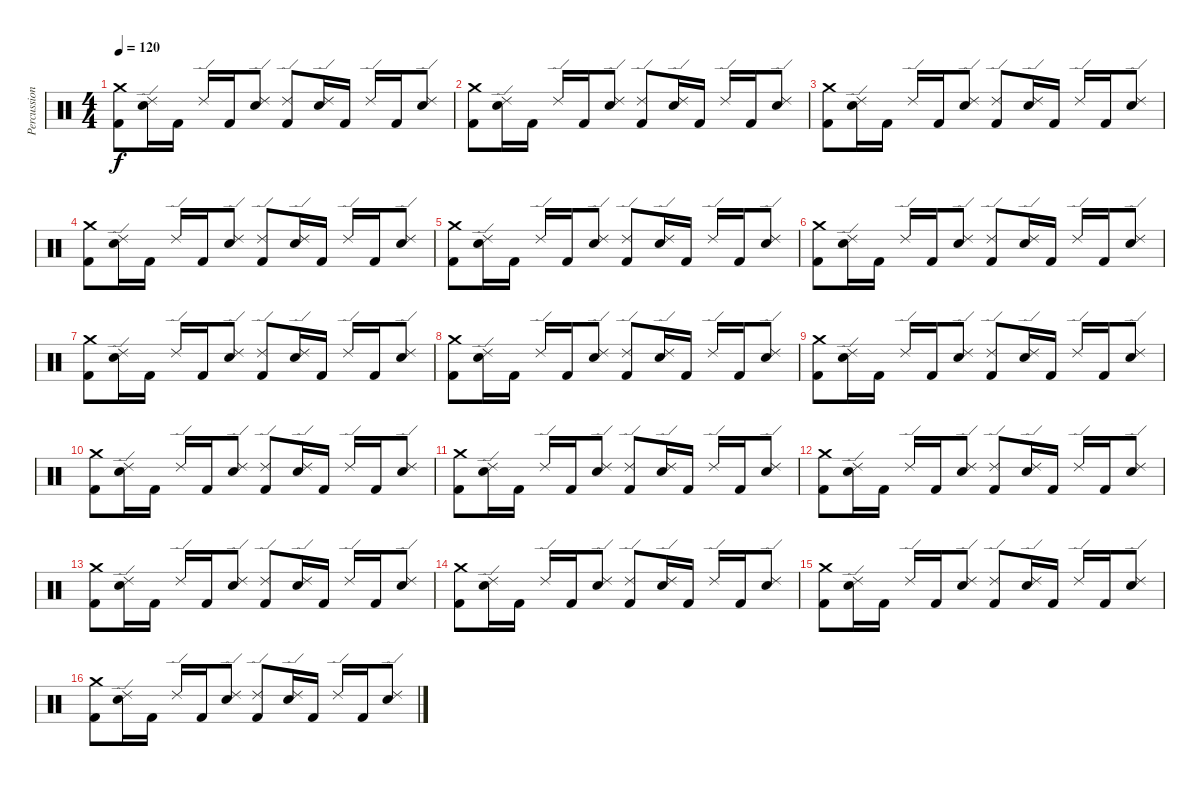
\track ("Percussions" "Percussion") {instrument percussion}
\staff {score}
\articulation defaults
\ts (4 4)
\tempo 120
\clef neutral
\ks c
("Crash medium (hit)" "Kick (hit) 2").8{dy f} ("Ride (edge) 2" "Snare (hit) 2").16 "Kick (hit) 2".16 "Ride (edge) 2".16 "Kick (hit) 2".16 ("Ride (edge) 2" "Snare (hit) 2").8 ("Ride (edge) 2" "Kick (hit) 2").8 ("Ride (edge) 2" "Snare (hit) 2").16 "Kick (hit) 2".16 "Ride (edge) 2".16 "Kick (hit) 2".16 ("Ride (edge) 2" "Snare (hit) 2").8 |
("Crash medium (hit)" "Kick (hit) 2").8 ("Ride (edge) 2" "Snare (hit) 2").16 "Kick (hit) 2".16 "Ride (edge) 2".16 "Kick (hit) 2".16 ("Ride (edge) 2" "Snare (hit) 2").8 ("Ride (edge) 2" "Kick (hit) 2").8 ("Ride (edge) 2" "Snare (hit) 2").16 "Kick (hit) 2".16 "Ride (edge) 2".16 "Kick (hit) 2".16 ("Ride (edge) 2" "Snare (hit) 2").8 |
("Crash medium (hit)" "Kick (hit) 2").8 ("Ride (edge) 2" "Snare (hit) 2").16 "Kick (hit) 2".16 "Ride (edge) 2".16 "Kick (hit) 2".16 ("Ride (edge) 2" "Snare (hit) 2").8 ("Ride (edge) 2" "Kick (hit) 2").8 ("Ride (edge) 2" "Snare (hit) 2").16 "Kick (hit) 2".16 "Ride (edge) 2".16 "Kick (hit) 2".16 ("Ride (edge) 2" "Snare (hit) 2").8 |
("Crash medium (hit)" "Kick (hit) 2").8 ("Ride (edge) 2" "Snare (hit) 2").16 "Kick (hit) 2".16 "Ride (edge) 2".16 "Kick (hit) 2".16 ("Ride (edge) 2" "Snare (hit) 2").8 ("Ride (edge) 2" "Kick (hit) 2").8 ("Ride (edge) 2" "Snare (hit) 2").16 "Kick (hit) 2".16 "Ride (edge) 2".16 "Kick (hit) 2".16 ("Ride (edge) 2" "Snare (hit) 2").8 |
("Crash medium (hit)" "Kick (hit) 2").8 ("Ride (edge) 2" "Snare (hit) 2").16 "Kick (hit) 2".16 "Ride (edge) 2".16 "Kick (hit) 2".16 ("Ride (edge) 2" "Snare (hit) 2").8 ("Ride (edge) 2" "Kick (hit) 2").8 ("Ride (edge) 2" "Snare (hit) 2").16 "Kick (hit) 2".16 "Ride (edge) 2".16 "Kick (hit) 2".16 ("Ride (edge) 2" "Snare (hit) 2").8 |
("Crash medium (hit)" "Kick (hit) 2").8 ("Ride (edge) 2" "Snare (hit) 2").16 "Kick (hit) 2".16 "Ride (edge) 2".16 "Kick (hit) 2".16 ("Ride (edge) 2" "Snare (hit) 2").8 ("Ride (edge) 2" "Kick (hit) 2").8 ("Ride (edge) 2" "Snare (hit) 2").16 "Kick (hit) 2".16 "Ride (edge) 2".16 "Kick (hit) 2".16 ("Ride (edge) 2" "Snare (hit) 2").8 |
("Crash medium (hit)" "Kick (hit) 2").8 ("Ride (edge) 2" "Snare (hit) 2").16 "Kick (hit) 2".16 "Ride (edge) 2".16 "Kick (hit) 2".16 ("Ride (edge) 2" "Snare (hit) 2").8 ("Ride (edge) 2" "Kick (hit) 2").8 ("Ride (edge) 2" "Snare (hit) 2").16 "Kick (hit) 2".16 "Ride (edge) 2".16 "Kick (hit) 2".16 ("Ride (edge) 2" "Snare (hit) 2").8 |
("Crash medium (hit)" "Kick (hit) 2").8 ("Ride (edge) 2" "Snare (hit) 2").16 "Kick (hit) 2".16 "Ride (edge) 2".16 "Kick (hit) 2".16 ("Ride (edge) 2" "Snare (hit) 2").8 ("Ride (edge) 2" "Kick (hit) 2").8 ("Ride (edge) 2" "Snare (hit) 2").16 "Kick (hit) 2".16 "Ride (edge) 2".16 "Kick (hit) 2".16 ("Ride (edge) 2" "Snare (hit) 2").8 |
("Crash medium (hit)" "Kick (hit) 2").8 ("Ride (edge) 2" "Snare (hit) 2").16 "Kick (hit) 2".16 "Ride (edge) 2".16 "Kick (hit) 2".16 ("Ride (edge) 2" "Snare (hit) 2").8 ("Ride (edge) 2" "Kick (hit) 2").8 ("Ride (edge) 2" "Snare (hit) 2").16 "Kick (hit) 2".16 "Ride (edge) 2".16 "Kick (hit) 2".16 ("Ride (edge) 2" "Snare (hit) 2").8 |
("Crash medium (hit)" "Kick (hit) 2").8 ("Ride (edge) 2" "Snare (hit) 2").16 "Kick (hit) 2".16 "Ride (edge) 2".16 "Kick (hit) 2".16 ("Ride (edge) 2" "Snare (hit) 2").8 ("Ride (edge) 2" "Kick (hit) 2").8 ("Ride (edge) 2" "Snare (hit) 2").16 "Kick (hit) 2".16 "Ride (edge) 2".16 "Kick (hit) 2".16 ("Ride (edge) 2" "Snare (hit) 2").8 |
("Crash medium (hit)" "Kick (hit) 2").8 ("Ride (edge) 2" "Snare (hit) 2").16 "Kick (hit) 2".16 "Ride (edge) 2".16 "Kick (hit) 2".16 ("Ride (edge) 2" "Snare (hit) 2").8 ("Ride (edge) 2" "Kick (hit) 2").8 ("Ride (edge) 2" "Snare (hit) 2").16 "Kick (hit) 2".16 "Ride (edge) 2".16 "Kick (hit) 2".16 ("Ride (edge) 2" "Snare (hit) 2").8 |
("Crash medium (hit)" "Kick (hit) 2").8 ("Ride (edge) 2" "Snare (hit) 2").16 "Kick (hit) 2".16 "Ride (edge) 2".16 "Kick (hit) 2".16 ("Ride (edge) 2" "Snare (hit) 2").8 ("Ride (edge) 2" "Kick (hit) 2").8 ("Ride (edge) 2" "Snare (hit) 2").16 "Kick (hit) 2".16 "Ride (edge) 2".16 "Kick (hit) 2".16 ("Ride (edge) 2" "Snare (hit) 2").8 |
("Crash medium (hit)" "Kick (hit) 2").8 ("Ride (edge) 2" "Snare (hit) 2").16 "Kick (hit) 2".16 "Ride (edge) 2".16 "Kick (hit) 2".16 ("Ride (edge) 2" "Snare (hit) 2").8 ("Ride (edge) 2" "Kick (hit) 2").8 ("Ride (edge) 2" "Snare (hit) 2").16 "Kick (hit) 2".16 "Ride (edge) 2".16 "Kick (hit) 2".16 ("Ride (edge) 2" "Snare (hit) 2").8 |
("Crash medium (hit)" "Kick (hit) 2").8 ("Ride (edge) 2" "Snare (hit) 2").16 "Kick (hit) 2".16 "Ride (edge) 2".16 "Kick (hit) 2".16 ("Ride (edge) 2" "Snare (hit) 2").8 ("Ride (edge) 2" "Kick (hit) 2").8 ("Ride (edge) 2" "Snare (hit) 2").16 "Kick (hit) 2".16 "Ride (edge) 2".16 "Kick (hit) 2".16 ("Ride (edge) 2" "Snare (hit) 2").8 |
("Crash medium (hit)" "Kick (hit) 2").8 ("Ride (edge) 2" "Snare (hit) 2").16 "Kick (hit) 2".16 "Ride (edge) 2".16 "Kick (hit) 2".16 ("Ride (edge) 2" "Snare (hit) 2").8 ("Ride (edge) 2" "Kick (hit) 2").8 ("Ride (edge) 2" "Snare (hit) 2").16 "Kick (hit) 2".16 "Ride (edge) 2".16 "Kick (hit) 2".16 ("Ride (edge) 2" "Snare (hit) 2").8 |
("Crash medium (hit)" "Kick (hit) 2").8 ("Ride (edge) 2" "Snare (hit) 2").16 "Kick (hit) 2".16 "Ride (edge) 2".16 "Kick (hit) 2".16 ("Ride (edge) 2" "Snare (hit) 2").8 ("Ride (edge) 2" "Kick (hit) 2").8 ("Ride (edge) 2" "Snare (hit) 2").16 "Kick (hit) 2".16 "Ride (edge) 2".16 "Kick (hit) 2".16 ("Ride (edge) 2" "Snare (hit) 2").8
